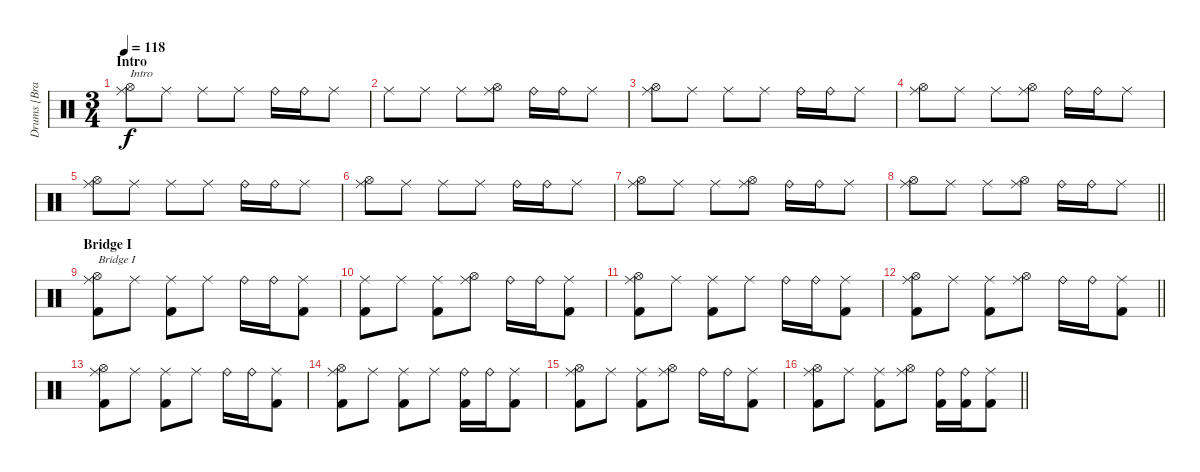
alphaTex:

\track ("Drums [Brann Dailor]" "Drums [Bra") {instrument percussion}
\staff {score}
\articulation defaults
\ts (3 4)
\section ("" "Intro")
\tempo 118
\clef neutral
\ks c
("Ride (middle)" "Hi-Hat (open)").8{txt "Intro" dy f} "Ride (middle)".8 "Ride (middle)".8 "Ride (middle)".8 "Ride (bell)".16 "Ride (bell)".16 "Ride (middle)".8 |
"Ride (middle)".8 "Ride (middle)".8 "Ride (middle)".8 ("Ride (middle)" "Hi-Hat (open)").8 "Ride (bell)".16 "Ride (bell)".16 "Ride (middle)".8 |
("Ride (middle)" "Hi-Hat (open)").8 "Ride (middle)".8 "Ride (middle)".8 "Ride (middle)".8 "Ride (bell)".16 "Ride (bell)".16 "Ride (middle)".8 |
("Ride (middle)" "Hi-Hat (open)").8 "Ride (middle)".8 "Ride (middle)".8 ("Ride (middle)" "Hi-Hat (open)").8 "Ride (bell)".16 "Ride (bell)".16 "Ride (middle)".8 |
("Ride (middle)" "Hi-Hat (open)").8 "Ride (middle)".8 "Ride (middle)".8 "Ride (middle)".8 "Ride (bell)".16 "Ride (bell)".16 "Ride (middle)".8 |
("Ride (middle)" "Hi-Hat (open)").8 "Ride (middle)".8 "Ride (middle)".8 "Ride (middle)".8 "Ride (bell)".16 "Ride (bell)".16 "Ride (middle)".8 |
("Ride (middle)" "Hi-Hat (open)").8 "Ride (middle)".8 "Ride (middle)".8 ("Ride (middle)" "Hi-Hat (open)").8 "Ride (bell)".16 "Ride (bell)".16 "Ride (middle)".8 |
\barLineRight lightlight
("Ride (middle)" "Hi-Hat (open)").8 "Ride (middle)".8 "Ride (middle)".8 ("Ride (middle)" "Hi-Hat (open)").8 "Ride (bell)".16 "Ride (bell)".16 "Ride (middle)".8 |
\section ("" "Bridge I")
("Ride (middle)" "Hi-Hat (open)" "Kick (hit) 2").8{txt "Bridge I"} "Ride (middle)".8 ("Ride (middle)" "Kick (hit) 2").8 "Ride (middle)".8 "Ride (bell)".16 "Ride (bell)".16 ("Ride (middle)" "Kick (hit) 2").8 |
("Ride (middle)" "Kick (hit) 2").8 "Ride (middle)".8 ("Ride (middle)" "Kick (hit) 2").8 ("Ride (middle)" "Hi-Hat (open)").8 "Ride (bell)".16 "Ride (bell)".16 ("Ride (middle)" "Kick (hit) 2").8 |
("Ride (middle)" "Hi-Hat (open)" "Kick (hit) 2").8 "Ride (middle)".8 ("Ride (middle)" "Kick (hit) 2").8 "Ride (middle)".8 "Ride (bell)".16 "Ride (bell)".16 ("Ride (middle)" "Kick (hit) 2").8 |
\barLineRight lightlight
("Ride (middle)" "Hi-Hat (open)" "Kick (hit) 2").8 "Ride (middle)".8 ("Ride (middle)" "Kick (hit) 2").8 ("Ride (middle)" "Hi-Hat (open)").8 "Ride (bell)".16 "Ride (bell)".16 ("Ride (middle)" "Kick (hit) 2").8 |
("Ride (middle)" "Hi-Hat (open)" "Kick (hit) 2").8 "Ride (middle)".8 ("Ride (middle)" "Kick (hit) 2").8 "Ride (middle)".8 "Ride (bell)".16 "Ride (bell)".16 ("Ride (middle)" "Kick (hit) 2").8 |
("Ride (middle)" "Hi-Hat (open)" "Kick (hit) 2").8 "Ride (middle)".8 ("Ride (middle)" "Kick (hit) 2").8 "Ride (middle)".8 ("Ride (bell)" "Kick (hit) 2").16 "Ride (bell)".16 ("Ride (middle)" "Kick (hit) 2").8 |
("Ride (middle)" "Hi-Hat (open)" "Kick (hit) 2").8 "Ride (middle)".8 ("Ride (middle)" "Kick (hit) 2").8 ("Ride (middle)" "Hi-Hat (open)").8 "Ride (bell)".16 "Ride (bell)".16 ("Ride (middle)" "Kick (hit) 2").8 |
\barLineRight lightlight
("Ride (middle)" "Hi-Hat (open)" "Kick (hit) 2").8 "Ride (middle)".8 ("Ride (middle)" "Kick (hit) 2").8 ("Ride (middle)" "Hi-Hat (open)").8 ("Ride (bell)" "Kick (hit) 2").16 ("Ride (bell)" "Kick (hit) 2").16 ("Ride (middle)" "Kick (hit) 2").8
